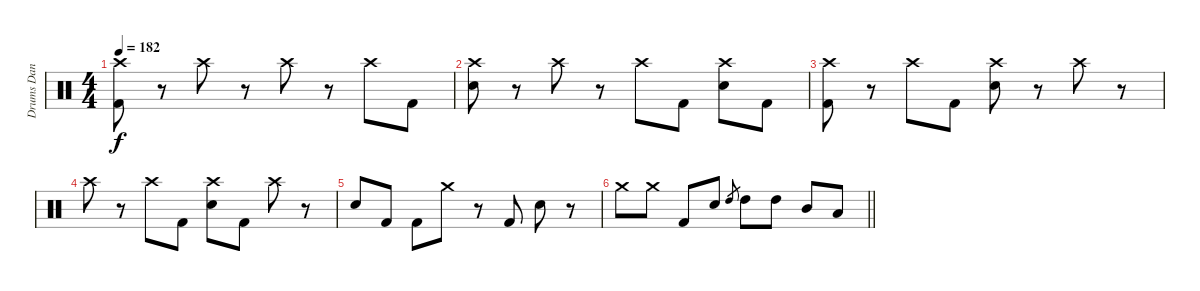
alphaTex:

\track ("Drums Dan Searle" "Drums Dan ") {instrument percussion}
\staff {score}
\articulation defaults
\ts (4 4)
\tempo 182
\clef neutral
\ks c
("Crash high (hit)" "Kick (hit) 2").8{dy f} r.8 "Crash high (hit)".8 r.8 "Crash high (hit)".8 r.8 "Crash high (hit)".8 "Kick (hit) 2".8 |
("Crash high (hit)" "Electric Snare (hit)").8 r.8 "Crash high (hit)".8 r.8 "Crash high (hit)".8 "Kick (hit) 2".8 ("Crash high (hit)" "Electric Snare (hit)").8 "Kick (hit) 2".8 |
("Crash high (hit)" "Kick (hit) 2").8 r.8 "Crash high (hit)".8 "Kick (hit) 2".8 ("Crash high (hit)" "Electric Snare (hit)").8 r.8 "Crash high (hit)".8 r.8 |
"Crash high (hit)".8 r.8 "Crash high (hit)".8 "Kick (hit) 2".8 ("Crash high (hit)" "Electric Snare (hit)").8 "Kick (hit) 2".8 "Crash high (hit)".8 r.8 |
"Electric Snare (hit)".8 "Kick (hit) 2".8 "Kick (hit) 2".8 "Crash medium (hit)".8 r.8 "Kick (hit) 2".8 "Electric Snare (hit)".8 r.8 |
\barLineRight lightlight "Crash medium (hit)".8 "Crash medium (hit)".8 "Kick (hit) 2".8 "Electric Snare (hit)".8 "High Tom (hit)".8{gr} "High Tom (hit)".8 "High Tom (hit)".8 "Mid Tom (hit)".8 "Low Tom (hit)".8
